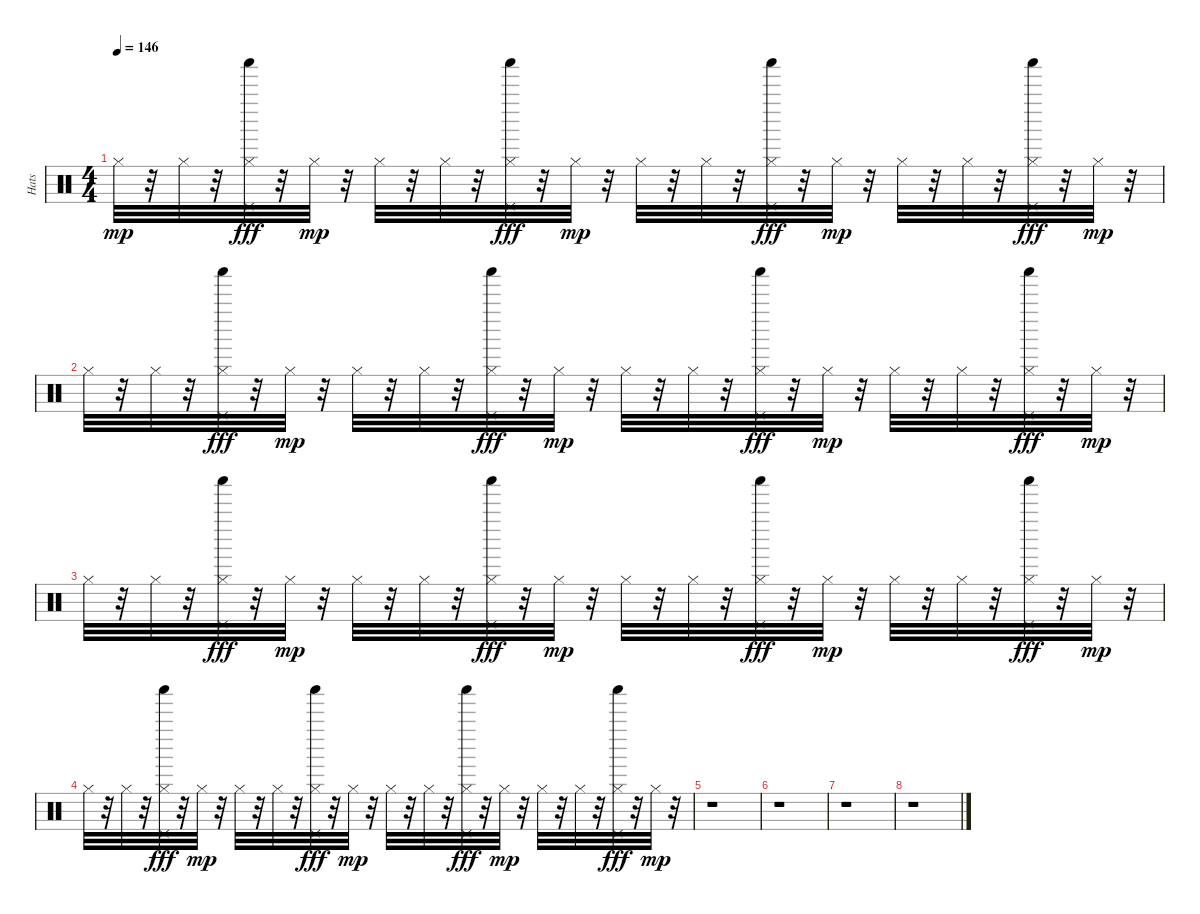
\track ("Hats" "Hats") {instrument percussion}
\staff {score}
\articulation defaults
\ts (4 4)
\tempo 146
\clef neutral
\ks c "Hi-Hat (closed)".32{dy mp}
r.32 "Hi-Hat (closed)".32 r.32 ("Hi-Hat (closed)" "Pedal Hi-Hat (hit)" "Shaker (hit)").32{dy fff} r.32 "Hi-Hat (closed)".32{dy mp} r.32 "Hi-Hat (closed)".32 r.32 "Hi-Hat (closed)".32 r.32 ("Hi-Hat (closed)" "Pedal Hi-Hat (hit)" "Shaker (hit)").32{dy fff} r.32 "Hi-Hat (closed)".32{dy mp} r.32 "Hi-Hat (closed)".32 r.32 "Hi-Hat (closed)".32 r.32 ("Hi-Hat (closed)" "Pedal Hi-Hat (hit)" "Shaker (hit)").32{dy fff} r.32 "Hi-Hat (closed)".32{dy mp} r.32 "Hi-Hat (closed)".32 r.32 "Hi-Hat (closed)".32 r.32 ("Hi-Hat (closed)" "Pedal Hi-Hat (hit)" "Shaker (hit)").32{dy fff} r.32 "Hi-Hat (closed)".32{dy mp} r.32 |
"Hi-Hat (closed)".32 r.32 "Hi-Hat (closed)".32 r.32 ("Hi-Hat (closed)" "Pedal Hi-Hat (hit)" "Shaker (hit)").32{dy fff} r.32 "Hi-Hat (closed)".32{dy mp} r.32 "Hi-Hat (closed)".32 r.32 "Hi-Hat (closed)".32 r.32 ("Hi-Hat (closed)" "Pedal Hi-Hat (hit)" "Shaker (hit)").32{dy fff} r.32 "Hi-Hat (closed)".32{dy mp} r.32 "Hi-Hat (closed)".32 r.32 "Hi-Hat (closed)".32 r.32 ("Hi-Hat (closed)" "Pedal Hi-Hat (hit)" "Shaker (hit)").32{dy fff} r.32 "Hi-Hat (closed)".32{dy mp} r.32 "Hi-Hat (closed)".32 r.32 "Hi-Hat (closed)".32 r.32 ("Hi-Hat (closed)" "Pedal Hi-Hat (hit)" "Shaker (hit)").32{dy fff} r.32 "Hi-Hat (closed)".32{dy mp} r.32 |
"Hi-Hat (closed)".32 r.32 "Hi-Hat (closed)".32 r.32 ("Hi-Hat (closed)" "Pedal Hi-Hat (hit)" "Shaker (hit)").32{dy fff} r.32 "Hi-Hat (closed)".32{dy mp} r.32 "Hi-Hat (closed)".32 r.32 "Hi-Hat (closed)".32 r.32 ("Hi-Hat (closed)" "Pedal Hi-Hat (hit)" "Shaker (hit)").32{dy fff} r.32 "Hi-Hat (closed)".32{dy mp} r.32 "Hi-Hat (closed)".32 r.32 "Hi-Hat (closed)".32 r.32 ("Hi-Hat (closed)" "Pedal Hi-Hat (hit)" "Shaker (hit)").32{dy fff} r.32 "Hi-Hat (closed)".32{dy mp} r.32 "Hi-Hat (closed)".32 r.32 "Hi-Hat (closed)".32 r.32 ("Hi-Hat (closed)" "Pedal Hi-Hat (hit)" "Shaker (hit)").32{dy fff} r.32 "Hi-Hat (closed)".32{dy mp} r.32 |
"Hi-Hat (closed)".32 r.32 "Hi-Hat (closed)".32 r.32 ("Hi-Hat (closed)" "Pedal Hi-Hat (hit)" "Shaker (hit)").32{dy fff} r.32 "Hi-Hat (closed)".32{dy mp} r.32 "Hi-Hat (closed)".32 r.32 "Hi-Hat (closed)".32 r.32 ("Hi-Hat (closed)" "Pedal Hi-Hat (hit)" "Shaker (hit)").32{dy fff} r.32 "Hi-Hat (closed)".32{dy mp} r.32 "Hi-Hat (closed)".32 r.32 "Hi-Hat (closed)".32 r.32 ("Hi-Hat (closed)" "Pedal Hi-Hat (hit)" "Shaker (hit)").32{dy fff} r.32 "Hi-Hat (closed)".32{dy mp} r.32 "Hi-Hat (closed)".32 r.32 "Hi-Hat (closed)".32 r.32 ("Hi-Hat (closed)" "Pedal Hi-Hat (hit)" "Shaker (hit)").32{dy fff} r.32 "Hi-Hat (closed)".32{dy mp} r.32 |
r.1 |
r.1 |
r.1 |
r.1
